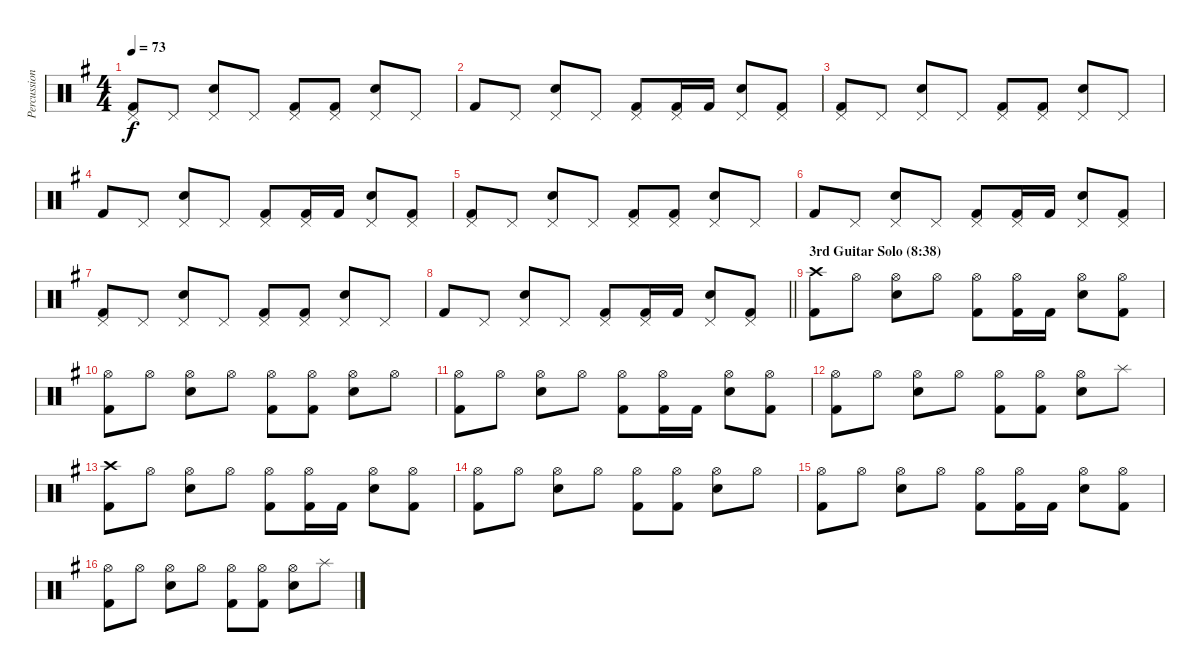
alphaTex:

\track ("Percussions" "Percussion") {instrument percussion}
\staff {score}
\articulation defaults
\ts (4 4)
\tempo 73
\clef neutral
\ks g
("Pedal Hi-Hat (hit)" "Kick (hit) 2").8{dy f} "Pedal Hi-Hat (hit)".8 ("Pedal Hi-Hat (hit)" "Snare (hit) 2").8 "Pedal Hi-Hat (hit)".8 ("Pedal Hi-Hat (hit)" "Kick (hit) 2").8 ("Pedal Hi-Hat (hit)" "Kick (hit) 2").8 ("Pedal Hi-Hat (hit)" "Snare (hit) 2").8 "Pedal Hi-Hat (hit)".8 |
"Kick (hit) 2".8 "Pedal Hi-Hat (hit)".8 ("Pedal Hi-Hat (hit)" "Snare (hit) 2").8 "Pedal Hi-Hat (hit)".8 ("Pedal Hi-Hat (hit)" "Kick (hit) 2").8 ("Pedal Hi-Hat (hit)" "Kick (hit) 2").16 "Kick (hit) 2".16 ("Pedal Hi-Hat (hit)" "Snare (hit) 2").8 ("Pedal Hi-Hat (hit)" "Kick (hit) 2").8 |
("Pedal Hi-Hat (hit)" "Kick (hit) 2").8 "Pedal Hi-Hat (hit)".8 ("Pedal Hi-Hat (hit)" "Snare (hit) 2").8 "Pedal Hi-Hat (hit)".8 ("Pedal Hi-Hat (hit)" "Kick (hit) 2").8 ("Pedal Hi-Hat (hit)" "Kick (hit) 2").8 ("Pedal Hi-Hat (hit)" "Snare (hit) 2").8 "Pedal Hi-Hat (hit)".8 |
"Kick (hit) 2".8 "Pedal Hi-Hat (hit)".8 ("Pedal Hi-Hat (hit)" "Snare (hit) 2").8 "Pedal Hi-Hat (hit)".8 ("Pedal Hi-Hat (hit)" "Kick (hit) 2").8 ("Pedal Hi-Hat (hit)" "Kick (hit) 2").16 "Kick (hit) 2".16 ("Pedal Hi-Hat (hit)" "Snare (hit) 2").8 ("Pedal Hi-Hat (hit)" "Kick (hit) 2").8 |
("Pedal Hi-Hat (hit)" "Kick (hit) 2").8 "Pedal Hi-Hat (hit)".8 ("Pedal Hi-Hat (hit)" "Snare (hit) 2").8 "Pedal Hi-Hat (hit)".8 ("Pedal Hi-Hat (hit)" "Kick (hit) 2").8 ("Pedal Hi-Hat (hit)" "Kick (hit) 2").8 ("Pedal Hi-Hat (hit)" "Snare (hit) 2").8 "Pedal Hi-Hat (hit)".8 |
"Kick (hit) 2".8 "Pedal Hi-Hat (hit)".8 ("Pedal Hi-Hat (hit)" "Snare (hit) 2").8 "Pedal Hi-Hat (hit)".8 ("Pedal Hi-Hat (hit)" "Kick (hit) 2").8 ("Pedal Hi-Hat (hit)" "Kick (hit) 2").16 "Kick (hit) 2".16 ("Pedal Hi-Hat (hit)" "Snare (hit) 2").8 ("Pedal Hi-Hat (hit)" "Kick (hit) 2").8 |
("Pedal Hi-Hat (hit)" "Kick (hit) 2").8 "Pedal Hi-Hat (hit)".8 ("Pedal Hi-Hat (hit)" "Snare (hit) 2").8 "Pedal Hi-Hat (hit)".8 ("Pedal Hi-Hat (hit)" "Kick (hit) 2").8 ("Pedal Hi-Hat (hit)" "Kick (hit) 2").8 ("Pedal Hi-Hat (hit)" "Snare (hit) 2").8 "Pedal Hi-Hat (hit)".8 |
\barLineRight lightlight "Kick (hit) 2".8 "Pedal Hi-Hat (hit)".8
("Pedal Hi-Hat (hit)" "Snare (hit) 2").8 "Pedal Hi-Hat (hit)".8 ("Pedal Hi-Hat (hit)" "Kick (hit) 2").8 ("Pedal Hi-Hat (hit)" "Kick (hit) 2").16 "Kick (hit) 2".16 ("Pedal Hi-Hat (hit)" "Snare (hit) 2").8 ("Pedal Hi-Hat (hit)" "Kick (hit) 2").8 |
\section ("" "3rd Guitar Solo (8:38)")
("Crash high (hit)" "Kick (hit) 2").8 "Hi-Hat (open)".8 ("Hi-Hat (open)" "Snare (hit) 2").8 "Hi-Hat (open)".8 ("Hi-Hat (open)" "Kick (hit) 2").8 ("Hi-Hat (open)" "Kick (hit) 2").16 "Kick (hit) 2".16 ("Hi-Hat (open)" "Snare (hit) 2").8 ("Hi-Hat (open)" "Kick (hit) 2").8 |
("Hi-Hat (open)" "Kick (hit) 2").8 "Hi-Hat (open)".8 ("Hi-Hat (open)" "Snare (hit) 2").8 "Hi-Hat (open)".8 ("Hi-Hat (open)" "Kick (hit) 2").8 ("Hi-Hat (open)" "Kick (hit) 2").8 ("Hi-Hat (open)" "Snare (hit) 2").8 "Hi-Hat (open)".8 |
("Hi-Hat (open)" "Kick (hit) 2").8 "Hi-Hat (open)".8 ("Hi-Hat (open)" "Snare (hit) 2").8 "Hi-Hat (open)".8 ("Hi-Hat (open)" "Kick (hit) 2").8 ("Hi-Hat (open)" "Kick (hit) 2").16 "Kick (hit) 2".16 ("Hi-Hat (open)" "Snare (hit) 2").8 ("Hi-Hat (open)" "Kick (hit) 2").8 |
("Hi-Hat (open)" "Kick (hit) 2").8 "Hi-Hat (open)".8 ("Hi-Hat (open)" "Snare (hit) 2").8 "Hi-Hat (open)".8 ("Hi-Hat (open)" "Kick (hit) 2").8 ("Hi-Hat (open)" "Kick (hit) 2").8 ("Hi-Hat (open)" "Snare (hit) 2").8 "Splash (hit)".8 |
("Crash high (hit)" "Kick (hit) 2").8 "Hi-Hat (open)".8 ("Hi-Hat (open)" "Snare (hit) 2").8 "Hi-Hat (open)".8 ("Hi-Hat (open)" "Kick (hit) 2").8 ("Hi-Hat (open)" "Kick (hit) 2").16 "Kick (hit) 2".16 ("Hi-Hat (open)" "Snare (hit) 2").8 ("Hi-Hat (open)" "Kick (hit) 2").8 |
("Hi-Hat (open)" "Kick (hit) 2").8 "Hi-Hat (open)".8 ("Hi-Hat (open)" "Snare (hit) 2").8 "Hi-Hat (open)".8 ("Hi-Hat (open)" "Kick (hit) 2").8 ("Hi-Hat (open)" "Kick (hit) 2").8 ("Hi-Hat (open)" "Snare (hit) 2").8 "Hi-Hat (open)".8 |
("Hi-Hat (open)" "Kick (hit) 2").8 "Hi-Hat (open)".8 ("Hi-Hat (open)" "Snare (hit) 2").8 "Hi-Hat (open)".8 ("Hi-Hat (open)" "Kick (hit) 2").8 ("Hi-Hat (open)" "Kick (hit) 2").16 "Kick (hit) 2".16 ("Hi-Hat (open)" "Snare (hit) 2").8 ("Hi-Hat (open)" "Kick (hit) 2").8 |
("Hi-Hat (open)" "Kick (hit) 2").8 "Hi-Hat (open)".8 ("Hi-Hat (open)" "Snare (hit) 2").8 "Hi-Hat (open)".8 ("Hi-Hat (open)" "Kick (hit) 2").8 ("Hi-Hat (open)" "Kick (hit) 2").8 ("Hi-Hat (open)" "Snare (hit) 2").8 "Splash (hit)".8
